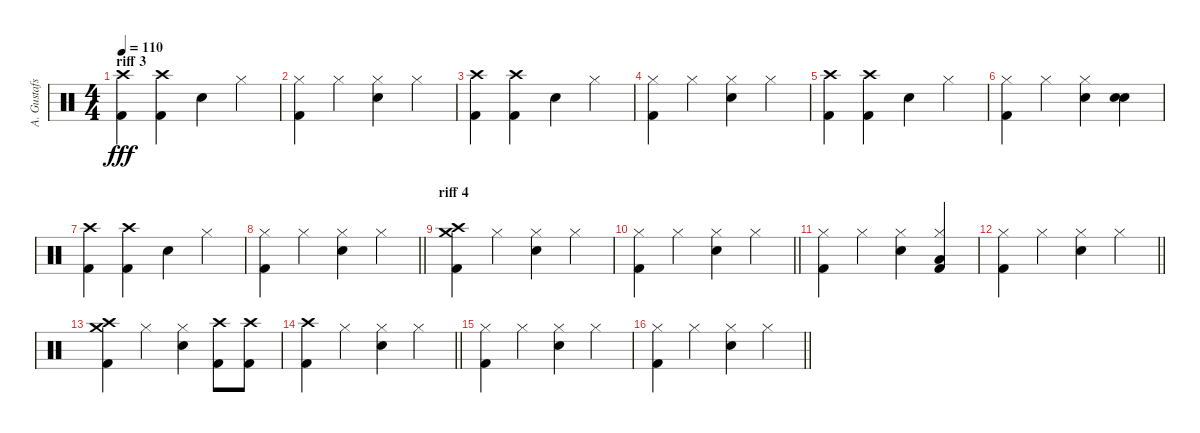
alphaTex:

\track ("A. Gustafsson" "A. Gustafs") {instrument percussion}
\staff {score}
\articulation defaults
\ts (4 4)
\section ("" "riff 3")
\tempo 110
\clef neutral
\ks c
("Crash high (hit)" "Kick (hit) 2").4{dy fff} ("Crash high (hit)" "Kick (hit) 2").4 "Snare (hit) 2".4 "Hi-Hat (closed)".4 |
("Hi-Hat (closed)" "Kick (hit) 2").4 "Hi-Hat (closed)".4 ("Hi-Hat (closed)" "Snare (hit) 2").4 "Hi-Hat (closed)".4 |
("Crash high (hit)" "Kick (hit) 2").4 ("Crash high (hit)" "Kick (hit) 2").4 "Snare (hit) 2".4 "Hi-Hat (closed)".4 |
("Hi-Hat (closed)" "Kick (hit) 2").4 "Hi-Hat (closed)".4 ("Hi-Hat (closed)" "Snare (hit) 2").4 "Hi-Hat (closed)".4 |
("Crash high (hit)" "Kick (hit) 2").4 ("Crash high (hit)" "Kick (hit) 2").4 "Snare (hit) 2".4 "Hi-Hat (closed)".4 |
("Hi-Hat (closed)" "Kick (hit) 2").4 "Hi-Hat (closed)".4 ("Hi-Hat (closed)" "Snare (hit) 2").4 ("Snare (hit) 2" "Snare (hit) 2").4 |
("Crash high (hit)" "Kick (hit) 2").4 ("Crash high (hit)" "Kick (hit) 2").4 "Snare (hit) 2".4 "Hi-Hat (closed)".4 |
\barLineRight lightlight
("Hi-Hat (closed)" "Kick (hit) 2").4 "Hi-Hat (closed)".4 ("Hi-Hat (closed)" "Snare (hit) 2").4 "Hi-Hat (closed)".4 |
\section ("" "riff 4")
("Crash high (hit)" "Crash medium (hit)" "Kick (hit) 2").4 "Hi-Hat (closed)".4 ("Hi-Hat (closed)" "Snare (hit) 2").4 "Hi-Hat (closed)".4 |
\barLineRight lightlight
("Hi-Hat (closed)" "Kick (hit) 2").4 "Hi-Hat (closed)".4 ("Hi-Hat (closed)" "Snare (hit) 2").4 "Hi-Hat (closed)".4 |
("Hi-Hat (closed)" "Kick (hit) 2").4 "Hi-Hat (closed)".4 ("Hi-Hat (closed)" "Snare (hit) 2").4 ("Hi-Hat (closed)" "Low Floor Tom (hit)" "Kick (hit) 2").4 |
\barLineRight lightlight
("Hi-Hat (closed)" "Kick (hit) 2").4 "Hi-Hat (closed)".4 ("Hi-Hat (closed)" "Snare (hit) 2").4 "Hi-Hat (closed)".4 |
("Crash high (hit)" "Crash medium (hit)" "Kick (hit) 2").4 "Hi-Hat (closed)".4 ("Hi-Hat (closed)" "Snare (hit) 2").4 ("Crash high (hit)" "Kick (hit) 2").8 ("Crash high (hit)" "Kick (hit) 2").8 |
\barLineRight lightlight
("Crash high (hit)" "Kick (hit) 2").4 "Hi-Hat (closed)".4 ("Hi-Hat (closed)" "Snare (hit) 2").4 "Hi-Hat (closed)".4 |
("Hi-Hat (closed)" "Kick (hit) 2").4 "Hi-Hat (closed)".4 ("Hi-Hat (closed)" "Snare (hit) 2").4 "Hi-Hat (closed)".4 |
\barLineRight lightlight
("Hi-Hat (closed)" "Kick (hit) 2").4 "Hi-Hat (closed)".4 ("Hi-Hat (closed)" "Snare (hit) 2").4 "Hi-Hat (closed)".4
